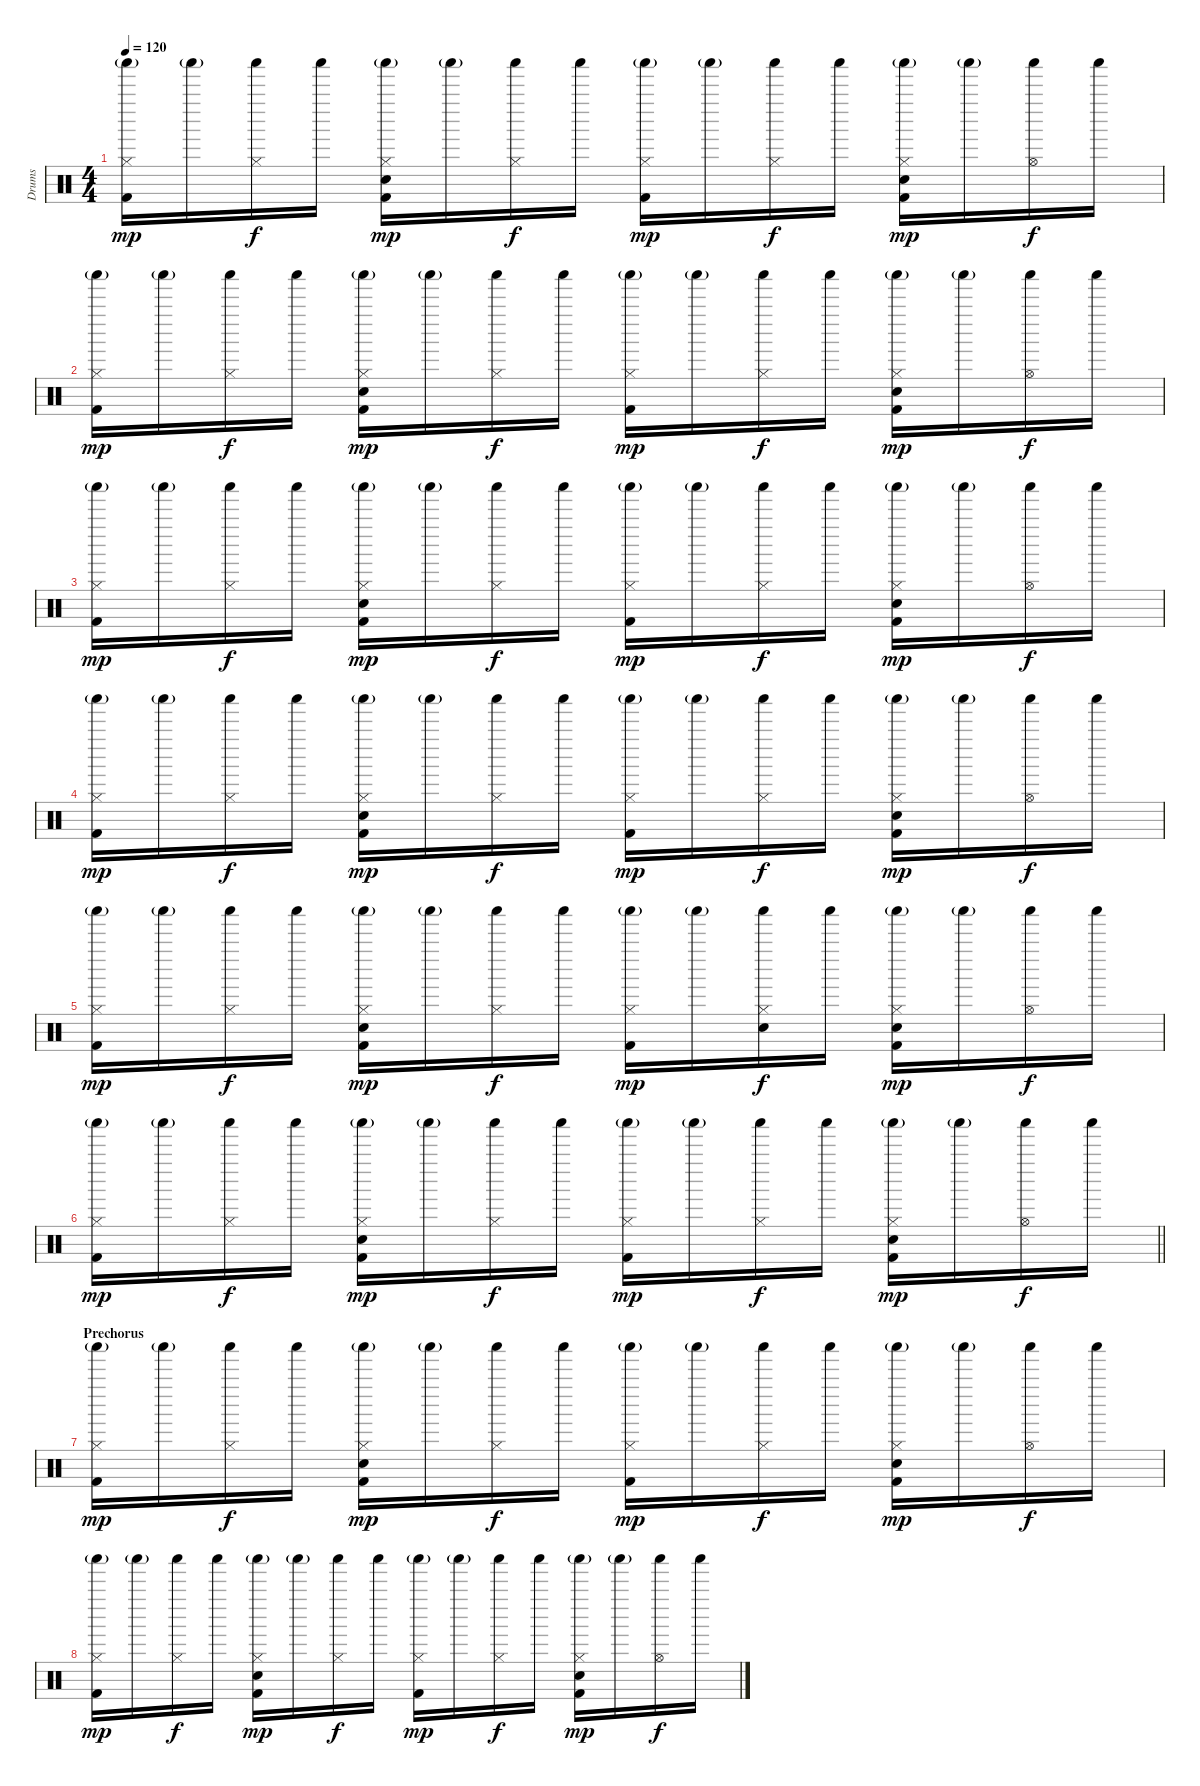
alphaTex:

\track ("Drums" "Drums") {instrument percussion}
\staff {score}
\articulation defaults
\ts (4 4)
\tempo 120
\clef neutral
\ks c
("Hi-Hat (closed)" "Shaker (hit)"{g} "Kick (hit) 2").16{dy mp} "Shaker (hit)"{g}.16 ("Hi-Hat (closed)" "Shaker (hit)").16{dy f} "Shaker (hit)".16 ("Hi-Hat (closed)" "Shaker (hit)"{g} "Electric Snare (hit)" "Kick (hit) 2").16{dy mp} "Shaker (hit)"{g}.16 ("Hi-Hat (closed)" "Shaker (hit)").16{dy f} "Shaker (hit)".16 ("Hi-Hat (closed)" "Shaker (hit)"{g} "Kick (hit) 2").16{dy mp} "Shaker (hit)"{g}.16 ("Hi-Hat (closed)" "Shaker (hit)").16{dy f} "Shaker (hit)".16 ("Hi-Hat (closed)" "Shaker (hit)"{g} "Electric Snare (hit)" "Kick (hit) 2").16{dy mp} "Shaker (hit)"{g}.16 ("Hi-Hat (open)" "Shaker (hit)").16{dy f} "Shaker (hit)".16 |
("Hi-Hat (closed)" "Shaker (hit)"{g} "Kick (hit) 2").16{dy mp} "Shaker (hit)"{g}.16 ("Hi-Hat (closed)" "Shaker (hit)").16{dy f} "Shaker (hit)".16 ("Hi-Hat (closed)" "Shaker (hit)"{g} "Electric Snare (hit)" "Kick (hit) 2").16{dy mp} "Shaker (hit)"{g}.16 ("Hi-Hat (closed)" "Shaker (hit)").16{dy f} "Shaker (hit)".16 ("Hi-Hat (closed)" "Shaker (hit)"{g} "Kick (hit) 2").16{dy mp} "Shaker (hit)"{g}.16 ("Hi-Hat (closed)" "Shaker (hit)").16{dy f} "Shaker (hit)".16 ("Hi-Hat (closed)" "Shaker (hit)"{g} "Electric Snare (hit)" "Kick (hit) 2").16{dy mp} "Shaker (hit)"{g}.16 ("Hi-Hat (open)" "Shaker (hit)").16{dy f} "Shaker (hit)".16 |
("Hi-Hat (closed)" "Shaker (hit)"{g} "Kick (hit) 2").16{dy mp} "Shaker (hit)"{g}.16 ("Hi-Hat (closed)" "Shaker (hit)").16{dy f} "Shaker (hit)".16 ("Hi-Hat (closed)" "Shaker (hit)"{g} "Electric Snare (hit)" "Kick (hit) 2").16{dy mp} "Shaker (hit)"{g}.16 ("Hi-Hat (closed)" "Shaker (hit)").16{dy f} "Shaker (hit)".16 ("Hi-Hat (closed)" "Shaker (hit)"{g} "Kick (hit) 2").16{dy mp} "Shaker (hit)"{g}.16 ("Hi-Hat (closed)" "Shaker (hit)").16{dy f} "Shaker (hit)".16 ("Hi-Hat (closed)" "Shaker (hit)"{g} "Electric Snare (hit)" "Kick (hit) 2").16{dy mp} "Shaker (hit)"{g}.16 ("Hi-Hat (open)" "Shaker (hit)").16{dy f} "Shaker (hit)".16 |
("Hi-Hat (closed)" "Shaker (hit)"{g} "Kick (hit) 2").16{dy mp} "Shaker (hit)"{g}.16 ("Hi-Hat (closed)" "Shaker (hit)").16{dy f} "Shaker (hit)".16 ("Hi-Hat (closed)" "Shaker (hit)"{g} "Electric Snare (hit)" "Kick (hit) 2").16{dy mp} "Shaker (hit)"{g}.16 ("Hi-Hat (closed)" "Shaker (hit)").16{dy f} "Shaker (hit)".16 ("Hi-Hat (closed)" "Shaker (hit)"{g} "Kick (hit) 2").16{dy mp} "Shaker (hit)"{g}.16 ("Hi-Hat (closed)" "Shaker (hit)").16{dy f} "Shaker (hit)".16 ("Hi-Hat (closed)" "Shaker (hit)"{g} "Electric Snare (hit)" "Kick (hit) 2").16{dy mp} "Shaker (hit)"{g}.16 ("Hi-Hat (open)" "Shaker (hit)").16{dy f} "Shaker (hit)".16 |
("Hi-Hat (closed)" "Shaker (hit)"{g} "Kick (hit) 2").16{dy mp} "Shaker (hit)"{g}.16 ("Hi-Hat (closed)" "Shaker (hit)").16{dy f} "Shaker (hit)".16 ("Hi-Hat (closed)" "Shaker (hit)"{g} "Electric Snare (hit)" "Kick (hit) 2").16{dy mp} "Shaker (hit)"{g}.16 ("Hi-Hat (closed)" "Shaker (hit)").16{dy f} "Shaker (hit)".16 ("Hi-Hat (closed)" "Shaker (hit)"{g} "Kick (hit) 2").16{dy mp} "Shaker (hit)"{g}.16 ("Hi-Hat (closed)" "Shaker (hit)" "Electric Snare (hit)").16{dy f} "Shaker (hit)".16 ("Hi-Hat (closed)" "Shaker (hit)"{g} "Electric Snare (hit)" "Kick (hit) 2").16{dy mp} "Shaker (hit)"{g}.16 ("Hi-Hat (open)" "Shaker (hit)").16{dy f} "Shaker (hit)".16 |
\barLineRight lightlight
("Hi-Hat (closed)" "Shaker (hit)"{g} "Kick (hit) 2").16{dy mp} "Shaker (hit)"{g}.16 ("Hi-Hat (closed)" "Shaker (hit)").16{dy f} "Shaker (hit)".16 ("Hi-Hat (closed)" "Shaker (hit)"{g} "Electric Snare (hit)" "Kick (hit) 2").16{dy mp} "Shaker (hit)"{g}.16 ("Hi-Hat (closed)" "Shaker (hit)").16{dy f} "Shaker (hit)".16 ("Hi-Hat (closed)" "Shaker (hit)"{g} "Kick (hit) 2").16{dy mp} "Shaker (hit)"{g}.16 ("Hi-Hat (closed)" "Shaker (hit)").16{dy f} "Shaker (hit)".16 ("Hi-Hat (closed)" "Shaker (hit)"{g} "Electric Snare (hit)" "Kick (hit) 2").16{dy mp} "Shaker (hit)"{g}.16 ("Hi-Hat (open)" "Shaker (hit)").16{dy f} "Shaker (hit)".16 |
\section ("" "Prechorus")
("Hi-Hat (closed)" "Shaker (hit)"{g} "Kick (hit) 2").16{dy mp} "Shaker (hit)"{g}.16 ("Hi-Hat (closed)" "Shaker (hit)").16{dy f} "Shaker (hit)".16 ("Hi-Hat (closed)" "Shaker (hit)"{g} "Electric Snare (hit)" "Kick (hit) 2").16{dy mp} "Shaker (hit)"{g}.16 ("Hi-Hat (closed)" "Shaker (hit)").16{dy f} "Shaker (hit)".16 ("Hi-Hat (closed)" "Shaker (hit)"{g} "Kick (hit) 2").16{dy mp} "Shaker (hit)"{g}.16 ("Hi-Hat (closed)" "Shaker (hit)").16{dy f} "Shaker (hit)".16 ("Hi-Hat (closed)" "Shaker (hit)"{g} "Electric Snare (hit)" "Kick (hit) 2").16{dy mp} "Shaker (hit)"{g}.16 ("Hi-Hat (open)" "Shaker (hit)").16{dy f} "Shaker (hit)".16 |
("Hi-Hat (closed)" "Shaker (hit)"{g} "Kick (hit) 2").16{dy mp} "Shaker (hit)"{g}.16 ("Hi-Hat (closed)" "Shaker (hit)").16{dy f} "Shaker (hit)".16 ("Hi-Hat (closed)" "Shaker (hit)"{g} "Electric Snare (hit)" "Kick (hit) 2").16{dy mp} "Shaker (hit)"{g}.16 ("Hi-Hat (closed)" "Shaker (hit)").16{dy f} "Shaker (hit)".16 ("Hi-Hat (closed)" "Shaker (hit)"{g} "Kick (hit) 2").16{dy mp} "Shaker (hit)"{g}.16 ("Hi-Hat (closed)" "Shaker (hit)").16{dy f} "Shaker (hit)".16 ("Hi-Hat (closed)" "Shaker (hit)"{g} "Electric Snare (hit)" "Kick (hit) 2").16{dy mp} "Shaker (hit)"{g}.16 ("Hi-Hat (open)" "Shaker (hit)").16{dy f} "Shaker (hit)".16
